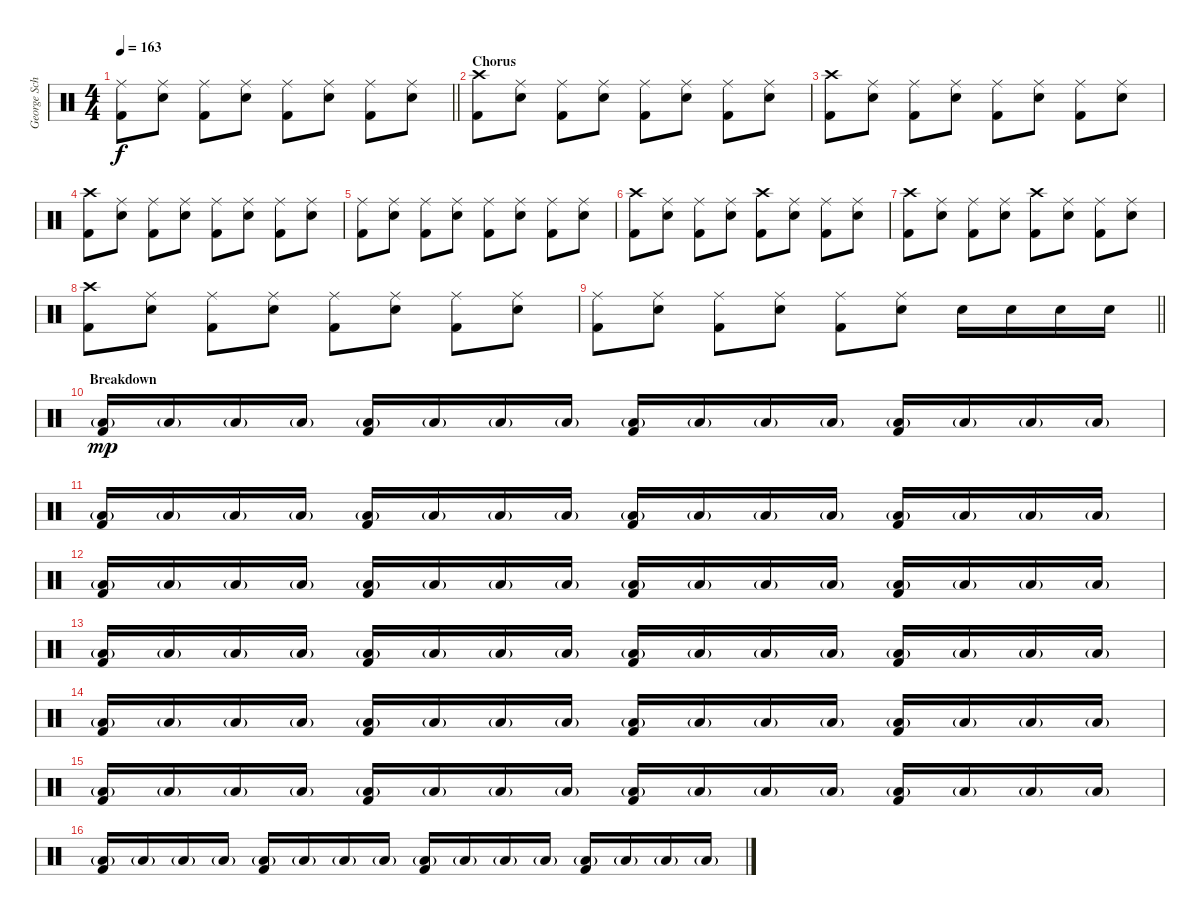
\track ("George Schwindt" "George Sch") {instrument percussion}
\staff {score}
\articulation defaults
\ts (4 4)
\tempo 163
\clef neutral
\barLineRight lightlight
\ks c
("Ride (middle)" "Kick (hit) 2").8{dy f} ("Ride (middle)" "Snare (hit) 2").8 ("Ride (middle)" "Kick (hit) 2").8 ("Ride (middle)" "Snare (hit) 2").8 ("Ride (middle)" "Kick (hit) 2").8 ("Ride (middle)" "Snare (hit) 2").8 ("Ride (middle)" "Kick (hit) 2").8 ("Ride (middle)" "Snare (hit) 2").8 |
\section ("" "Chorus")
("Crash high (hit)" "Kick (hit) 2").8 ("Ride (middle)" "Snare (hit) 2").8 ("Ride (middle)" "Kick (hit) 2").8 ("Ride (middle)" "Snare (hit) 2").8 ("Ride (middle)" "Kick (hit) 2").8 ("Ride (middle)" "Snare (hit) 2").8 ("Ride (middle)" "Kick (hit) 2").8 ("Ride (middle)" "Snare (hit) 2").8 |
("Crash high (hit)" "Kick (hit) 2").8 ("Ride (middle)" "Snare (hit) 2").8 ("Ride (middle)" "Kick (hit) 2").8 ("Ride (middle)" "Snare (hit) 2").8 ("Ride (middle)" "Kick (hit) 2").8 ("Ride (middle)" "Snare (hit) 2").8 ("Ride (middle)" "Kick (hit) 2").8 ("Ride (middle)" "Snare (hit) 2").8 |
("Crash high (hit)" "Kick (hit) 2").8 ("Ride (middle)" "Snare (hit) 2").8 ("Ride (middle)" "Kick (hit) 2").8 ("Ride (middle)" "Snare (hit) 2").8 ("Ride (middle)" "Kick (hit) 2").8 ("Ride (middle)" "Snare (hit) 2").8 ("Ride (middle)" "Kick (hit) 2").8 ("Ride (middle)" "Snare (hit) 2").8 |
("Ride (middle)" "Kick (hit) 2").8 ("Ride (middle)" "Snare (hit) 2").8 ("Ride (middle)" "Kick (hit) 2").8 ("Ride (middle)" "Snare (hit) 2").8 ("Ride (middle)" "Kick (hit) 2").8 ("Ride (middle)" "Snare (hit) 2").8 ("Ride (middle)" "Kick (hit) 2").8 ("Ride (middle)" "Snare (hit) 2").8 |
("Crash high (hit)" "Kick (hit) 2").8 ("Ride (middle)" "Snare (hit) 2").8 ("Ride (middle)" "Kick (hit) 2").8 ("Ride (middle)" "Snare (hit) 2").8 ("Crash high (hit)" "Kick (hit) 2").8 ("Ride (middle)" "Snare (hit) 2").8 ("Ride (middle)" "Kick (hit) 2").8 ("Ride (middle)" "Snare (hit) 2").8 |
("Crash high (hit)" "Kick (hit) 2").8 ("Ride (middle)" "Snare (hit) 2").8 ("Ride (middle)" "Kick (hit) 2").8 ("Ride (middle)" "Snare (hit) 2").8 ("Crash high (hit)" "Kick (hit) 2").8 ("Ride (middle)" "Snare (hit) 2").8 ("Ride (middle)" "Kick (hit) 2").8 ("Ride (middle)" "Snare (hit) 2").8 |
("Crash high (hit)" "Kick (hit) 2").8 ("Ride (middle)" "Snare (hit) 2").8 ("Ride (middle)" "Kick (hit) 2").8 ("Ride (middle)" "Snare (hit) 2").8 ("Ride (middle)" "Kick (hit) 2").8 ("Ride (middle)" "Snare (hit) 2").8 ("Ride (middle)" "Kick (hit) 2").8 ("Ride (middle)" "Snare (hit) 2").8 |
\barLineRight lightlight
("Ride (middle)" "Kick (hit) 2").8 ("Ride (middle)" "Snare (hit) 2").8 ("Ride (middle)" "Kick (hit) 2").8 ("Ride (middle)" "Snare (hit) 2").8 ("Ride (middle)" "Kick (hit) 2").8 ("Ride (middle)" "Snare (hit) 2").8 "Snare (hit) 2".16 "Snare (hit) 2".16 "Snare (hit) 2".16 "Snare (hit) 2".16 |
\section ("" "Breakdown")
("Low Floor Tom (hit)"{g} "Kick (hit) 2").16{dy mp} "Low Floor Tom (hit)"{g}.16 "Low Floor Tom (hit)"{g}.16 "Low Floor Tom (hit)"{g}.16 ("Low Floor Tom (hit)"{g} "Kick (hit) 2").16 "Low Floor Tom (hit)"{g}.16 "Low Floor Tom (hit)"{g}.16 "Low Floor Tom (hit)"{g}.16 ("Low Floor Tom (hit)"{g} "Kick (hit) 2").16 "Low Floor Tom (hit)"{g}.16 "Low Floor Tom (hit)"{g}.16 "Low Floor Tom (hit)"{g}.16 ("Low Floor Tom (hit)"{g} "Kick (hit) 2").16 "Low Floor Tom (hit)"{g}.16 "Low Floor Tom (hit)"{g}.16 "Low Floor Tom (hit)"{g}.16 |
("Low Floor Tom (hit)"{g} "Kick (hit) 2").16 "Low Floor Tom (hit)"{g}.16 "Low Floor Tom (hit)"{g}.16 "Low Floor Tom (hit)"{g}.16 ("Low Floor Tom (hit)"{g} "Kick (hit) 2").16 "Low Floor Tom (hit)"{g}.16 "Low Floor Tom (hit)"{g}.16 "Low Floor Tom (hit)"{g}.16 ("Low Floor Tom (hit)"{g} "Kick (hit) 2").16 "Low Floor Tom (hit)"{g}.16 "Low Floor Tom (hit)"{g}.16 "Low Floor Tom (hit)"{g}.16 ("Low Floor Tom (hit)"{g} "Kick (hit) 2").16 "Low Floor Tom (hit)"{g}.16 "Low Floor Tom (hit)"{g}.16 "Low Floor Tom (hit)"{g}.16 |
("Low Floor Tom (hit)"{g} "Kick (hit) 2").16 "Low Floor Tom (hit)"{g}.16 "Low Floor Tom (hit)"{g}.16 "Low Floor Tom (hit)"{g}.16 ("Low Floor Tom (hit)"{g} "Kick (hit) 2").16 "Low Floor Tom (hit)"{g}.16 "Low Floor Tom (hit)"{g}.16 "Low Floor Tom (hit)"{g}.16 ("Low Floor Tom (hit)"{g} "Kick (hit) 2").16 "Low Floor Tom (hit)"{g}.16 "Low Floor Tom (hit)"{g}.16 "Low Floor Tom (hit)"{g}.16 ("Low Floor Tom (hit)"{g} "Kick (hit) 2").16 "Low Floor Tom (hit)"{g}.16 "Low Floor Tom (hit)"{g}.16 "Low Floor Tom (hit)"{g}.16 |
("Low Floor Tom (hit)"{g} "Kick (hit) 2").16 "Low Floor Tom (hit)"{g}.16 "Low Floor Tom (hit)"{g}.16 "Low Floor Tom (hit)"{g}.16 ("Low Floor Tom (hit)"{g} "Kick (hit) 2").16 "Low Floor Tom (hit)"{g}.16 "Low Floor Tom (hit)"{g}.16 "Low Floor Tom (hit)"{g}.16 ("Low Floor Tom (hit)"{g} "Kick (hit) 2").16 "Low Floor Tom (hit)"{g}.16 "Low Floor Tom (hit)"{g}.16 "Low Floor Tom (hit)"{g}.16 ("Low Floor Tom (hit)"{g} "Kick (hit) 2").16 "Low Floor Tom (hit)"{g}.16 "Low Floor Tom (hit)"{g}.16 "Low Floor Tom (hit)"{g}.16 |
("Low Floor Tom (hit)"{g} "Kick (hit) 2").16 "Low Floor Tom (hit)"{g}.16 "Low Floor Tom (hit)"{g}.16 "Low Floor Tom (hit)"{g}.16 ("Low Floor Tom (hit)"{g} "Kick (hit) 2").16 "Low Floor Tom (hit)"{g}.16 "Low Floor Tom (hit)"{g}.16 "Low Floor Tom (hit)"{g}.16 ("Low Floor Tom (hit)"{g} "Kick (hit) 2").16 "Low Floor Tom (hit)"{g}.16 "Low Floor Tom (hit)"{g}.16 "Low Floor Tom (hit)"{g}.16 ("Low Floor Tom (hit)"{g} "Kick (hit) 2").16 "Low Floor Tom (hit)"{g}.16 "Low Floor Tom (hit)"{g}.16 "Low Floor Tom (hit)"{g}.16 |
("Low Floor Tom (hit)"{g} "Kick (hit) 2").16 "Low Floor Tom (hit)"{g}.16 "Low Floor Tom (hit)"{g}.16 "Low Floor Tom (hit)"{g}.16 ("Low Floor Tom (hit)"{g} "Kick (hit) 2").16 "Low Floor Tom (hit)"{g}.16 "Low Floor Tom (hit)"{g}.16 "Low Floor Tom (hit)"{g}.16 ("Low Floor Tom (hit)"{g} "Kick (hit) 2").16 "Low Floor Tom (hit)"{g}.16 "Low Floor Tom (hit)"{g}.16 "Low Floor Tom (hit)"{g}.16 ("Low Floor Tom (hit)"{g} "Kick (hit) 2").16 "Low Floor Tom (hit)"{g}.16 "Low Floor Tom (hit)"{g}.16 "Low Floor Tom (hit)"{g}.16 |
("Low Floor Tom (hit)"{g} "Kick (hit) 2").16 "Low Floor Tom (hit)"{g}.16 "Low Floor Tom (hit)"{g}.16 "Low Floor Tom (hit)"{g}.16 ("Low Floor Tom (hit)"{g} "Kick (hit) 2").16 "Low Floor Tom (hit)"{g}.16 "Low Floor Tom (hit)"{g}.16 "Low Floor Tom (hit)"{g}.16 ("Low Floor Tom (hit)"{g} "Kick (hit) 2").16 "Low Floor Tom (hit)"{g}.16 "Low Floor Tom (hit)"{g}.16 "Low Floor Tom (hit)"{g}.16 ("Low Floor Tom (hit)"{g} "Kick (hit) 2").16 "Low Floor Tom (hit)"{g}.16 "Low Floor Tom (hit)"{g}.16 "Low Floor Tom (hit)"{g}.16
